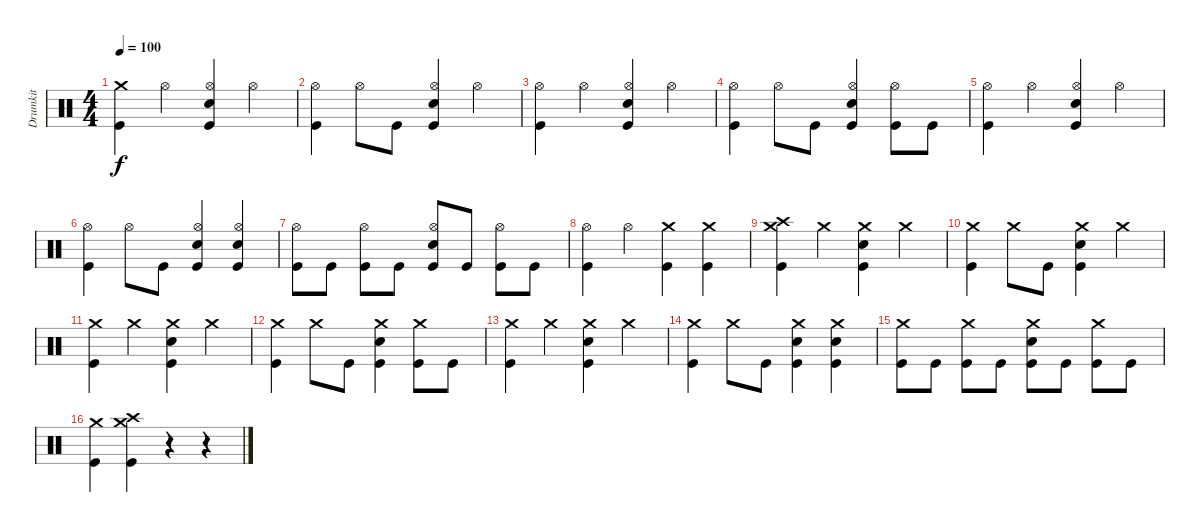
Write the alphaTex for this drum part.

\track ("Drumkit" "Drumkit") {instrument percussion}
\staff {score}
\articulation defaults
\ts (4 4)
\tempo 100
\clef neutral
\ks c
("Crash medium (hit)" "Kick (hit)").4{dy f} "Hi-Hat (open)".4 ("Hi-Hat (open)" "Snare (hit) 2" "Kick (hit)").4 "Hi-Hat (open)".4 |
("Hi-Hat (open)" "Kick (hit)").4 "Hi-Hat (open)".8 "Kick (hit)".8 ("Hi-Hat (open)" "Snare (hit) 2" "Kick (hit)").4 "Hi-Hat (open)".4 |
("Hi-Hat (open)" "Kick (hit)").4 "Hi-Hat (open)".4 ("Hi-Hat (open)" "Snare (hit) 2" "Kick (hit)").4 "Hi-Hat (open)".4 |
("Hi-Hat (open)" "Kick (hit)").4 "Hi-Hat (open)".8 "Kick (hit)".8 ("Hi-Hat (open)" "Snare (hit) 2" "Kick (hit)").4 ("Hi-Hat (open)" "Kick (hit)").8 "Kick (hit)".8 |
("Hi-Hat (open)" "Kick (hit)").4 "Hi-Hat (open)".4 ("Hi-Hat (open)" "Snare (hit) 2" "Kick (hit)").4 "Hi-Hat (open)".4 |
("Hi-Hat (open)" "Kick (hit)").4 "Hi-Hat (open)".8 "Kick (hit)".8 ("Hi-Hat (open)" "Snare (hit) 2" "Kick (hit)").4 ("Hi-Hat (open)" "Snare (hit) 2" "Kick (hit)").4 |
("Hi-Hat (open)" "Kick (hit)").8 "Kick (hit)".8 ("Hi-Hat (open)" "Kick (hit)").8 "Kick (hit)".8 ("Hi-Hat (open)" "Snare (hit) 2" "Kick (hit)").8 "Kick (hit)".8 ("Hi-Hat (open)" "Kick (hit)").8 "Kick (hit)".8 |
("Hi-Hat (open)" "Kick (hit)").4 "Hi-Hat (open)".4 ("Crash medium (hit)" "Kick (hit)").4 ("Crash medium (hit)" "Kick (hit)").4 |
("Crash medium (hit)" "Crash high (hit)" "Kick (hit)").4 "Crash medium (hit)".4 ("Crash medium (hit)" "Snare (hit) 2" "Kick (hit)").4 "Crash medium (hit)".4 |
("Crash medium (hit)" "Kick (hit)").4 "Crash medium (hit)".8 "Kick (hit)".8 ("Crash medium (hit)" "Snare (hit) 2" "Kick (hit)").4 "Crash medium (hit)".4 |
("Crash medium (hit)" "Kick (hit)").4 "Crash medium (hit)".4 ("Crash medium (hit)" "Snare (hit) 2" "Kick (hit)").4 "Crash medium (hit)".4 |
("Crash medium (hit)" "Kick (hit)").4 "Crash medium (hit)".8 "Kick (hit)".8 ("Crash medium (hit)" "Snare (hit) 2" "Kick (hit)").4 ("Crash medium (hit)" "Kick (hit)").8 "Kick (hit)".8 |
("Crash medium (hit)" "Kick (hit)").4 "Crash medium (hit)".4 ("Crash medium (hit)" "Snare (hit) 2" "Kick (hit)").4 "Crash medium (hit)".4 |
("Crash medium (hit)" "Kick (hit)").4 "Crash medium (hit)".8 "Kick (hit)".8 ("Crash medium (hit)" "Snare (hit) 2" "Kick (hit)").4 ("Crash medium (hit)" "Snare (hit) 2" "Kick (hit)").4 |
("Crash medium (hit)" "Kick (hit)").8 "Kick (hit)".8 ("Crash medium (hit)" "Kick (hit)").8 "Kick (hit)".8 ("Crash medium (hit)" "Snare (hit) 2" "Kick (hit)").8 "Kick (hit)".8 ("Crash medium (hit)" "Kick (hit)").8 "Kick (hit)".8 |
("Crash medium (hit)" "Kick (hit)").4 ("Crash medium (hit)" "Crash high (hit)" "Kick (hit)").4 r.4 r.4
